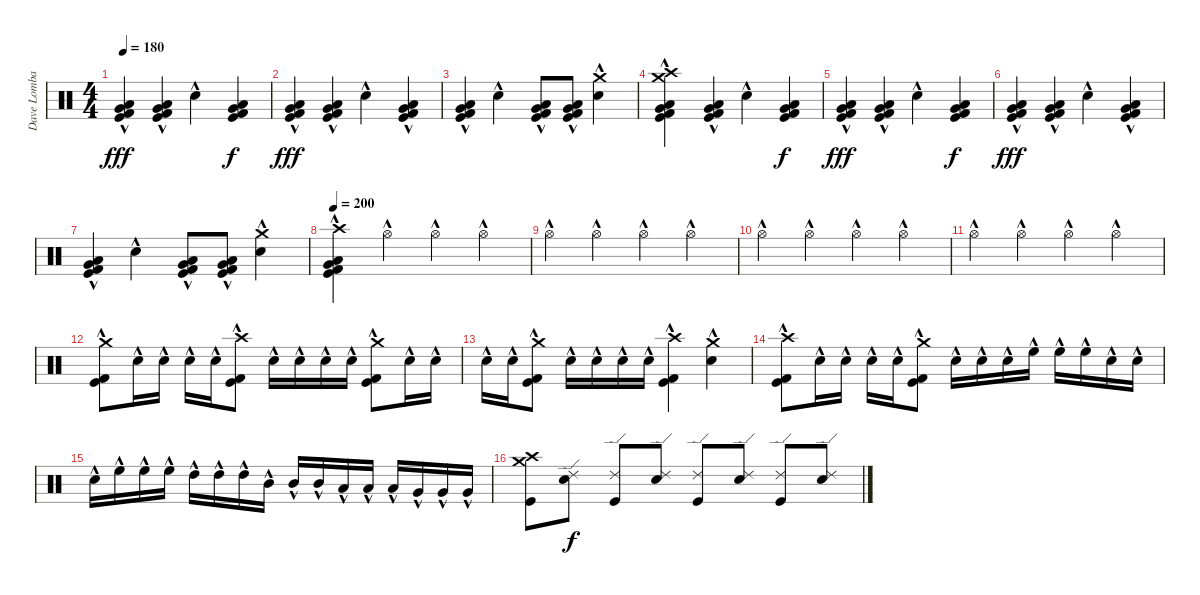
\track ("Dave Lombardo:" "Dave Lomba") {instrument percussion}
\staff {score}
\articulation defaults
\ts (4 4)
\tempo 180
\clef neutral
\ks c
("Very Low Tom (hit)"{hac} "Low Floor Tom (hit)"{hac} "Kick (hit)"{hac} "Kick (hit) 2"{hac}).4{dy fff} ("Very Low Tom (hit)"{hac} "Low Floor Tom (hit)"{hac} "Kick (hit)"{hac} "Kick (hit) 2"{hac}).4 "Snare (hit) 2"{hac}.4 ("Very Low Tom (hit)" "Low Floor Tom (hit)" "Kick (hit)" "Kick (hit) 2").4{dy f} |
("Very Low Tom (hit)"{hac} "Low Floor Tom (hit)"{hac} "Kick (hit)"{hac} "Kick (hit) 2"{hac}).4{dy fff} ("Very Low Tom (hit)"{hac} "Low Floor Tom (hit)"{hac} "Kick (hit)"{hac} "Kick (hit) 2"{hac}).4 "Snare (hit) 2"{hac}.4 ("Very Low Tom (hit)" "Low Floor Tom (hit)" "Kick (hit)" "Kick (hit) 2"{hac}).4 |
("Very Low Tom (hit)"{hac} "Low Floor Tom (hit)"{hac} "Kick (hit)"{hac} "Kick (hit) 2"{hac}).4 "Snare (hit) 2"{hac}.4 ("Very Low Tom (hit)"{hac} "Low Floor Tom (hit)"{hac} "Kick (hit)"{hac} "Kick (hit) 2"{hac}).8 ("Very Low Tom (hit)"{hac} "Low Floor Tom (hit)"{hac} "Kick (hit)"{hac} "Kick (hit) 2"{hac}).8 ("Crash medium (hit)" "Snare (hit) 2"{hac}).4 |
("Crash high (hit)"{hac} "Crash medium (hit)"{hac} "Very Low Tom (hit)" "Low Floor Tom (hit)" "Kick (hit) 2"{hac} "Kick (hit)"{hac}).4 ("Very Low Tom (hit)" "Low Floor Tom (hit)" "Kick (hit) 2"{hac} "Kick (hit)"{hac}).4 "Snare (hit) 2"{hac}.4 ("Very Low Tom (hit)" "Low Floor Tom (hit)" "Kick (hit)" "Kick (hit) 2").4{dy f} |
("Very Low Tom (hit)"{hac} "Low Floor Tom (hit)"{hac} "Kick (hit)"{hac} "Kick (hit) 2"{hac}).4{dy fff} ("Very Low Tom (hit)"{hac} "Low Floor Tom (hit)"{hac} "Kick (hit)"{hac} "Kick (hit) 2"{hac}).4 "Snare (hit) 2"{hac}.4 ("Very Low Tom (hit)" "Low Floor Tom (hit)" "Kick (hit)" "Kick (hit) 2").4{dy f} |
("Very Low Tom (hit)"{hac} "Low Floor Tom (hit)"{hac} "Kick (hit)"{hac} "Kick (hit) 2"{hac}).4{dy fff} ("Very Low Tom (hit)"{hac} "Low Floor Tom (hit)"{hac} "Kick (hit)"{hac} "Kick (hit) 2"{hac}).4 "Snare (hit) 2"{hac}.4 ("Very Low Tom (hit)" "Low Floor Tom (hit)" "Kick (hit)" "Kick (hit) 2"{hac}).4 |
("Very Low Tom (hit)"{hac} "Low Floor Tom (hit)"{hac} "Kick (hit)"{hac} "Kick (hit) 2"{hac}).4 "Snare (hit) 2"{hac}.4 ("Very Low Tom (hit)"{hac} "Low Floor Tom (hit)"{hac} "Kick (hit)"{hac} "Kick (hit) 2"{hac}).8 ("Very Low Tom (hit)"{hac} "Low Floor Tom (hit)"{hac} "Kick (hit)"{hac} "Kick (hit) 2"{hac}).8 ("Crash medium (hit)" "Snare (hit) 2"{hac}).4 |
\tempo 200
("Crash high (hit)" "Very Low Tom (hit)" "Low Floor Tom (hit)" "Kick (hit)" "Kick (hit) 2"{hac}).4 "Hi-Hat (open)"{hac}.4 "Hi-Hat (open)"{hac}.4 "Hi-Hat (open)"{hac}.4 |
"Hi-Hat (open)"{hac}.4 "Hi-Hat (open)"{hac}.4 "Hi-Hat (open)"{hac}.4 "Hi-Hat (open)"{hac}.4 |
"Hi-Hat (open)"{hac}.4 "Hi-Hat (open)"{hac}.4 "Hi-Hat (open)"{hac}.4 "Hi-Hat (open)"{hac}.4 |
"Hi-Hat (open)"{hac}.4 "Hi-Hat (open)"{hac}.4 "Hi-Hat (open)"{hac}.4 "Hi-Hat (open)"{hac}.4 |
("Crash medium (hit)" "Kick (hit) 2"{hac} "Kick (hit)"{hac}).8 "Snare (hit) 2"{hac}.16 "Snare (hit) 2"{hac}.16 "Snare (hit) 2"{hac}.16 "Snare (hit) 2"{hac}.16 ("Crash high (hit)" "Kick (hit) 2"{hac} "Kick (hit)"{hac}).8 "Snare (hit) 2"{hac}.16 "Snare (hit) 2"{hac}.16 "Snare (hit) 2"{hac}.16 "Snare (hit) 2"{hac}.16 ("Crash medium (hit)" "Kick (hit) 2"{hac} "Kick (hit)"{hac}).8 "Snare (hit) 2"{hac}.16 "Snare (hit) 2"{hac}.16 |
"Snare (hit) 2"{hac}.16 "Snare (hit) 2"{hac}.16 ("Crash medium (hit)" "Kick (hit)"{hac} "Kick (hit) 2"{hac}).8 "Snare (hit) 2"{hac}.16 "Snare (hit) 2"{hac}.16 "Snare (hit) 2"{hac}.16 "Snare (hit) 2"{hac}.16 ("Crash high (hit)" "Kick (hit) 2"{hac} "Kick (hit)"{hac}).4 ("Crash medium (hit)"{hac} "Snare (hit) 2"{hac}).4 |
("Crash high (hit)"{hac} "Kick (hit) 2"{hac} "Kick (hit)"{hac}).8 "Snare (hit) 2"{hac}.16 "Snare (hit) 2"{hac}.16 "Snare (hit) 2"{hac}.16 "Snare (hit) 2"{hac}.16 ("Crash medium (hit)"{hac} "Kick (hit)"{hac} "Kick (hit) 2"{hac}).8 "Snare (hit) 2"{hac}.16 "Snare (hit) 2"{hac}.16 "Snare (hit) 2"{hac}.16 "High Floor Tom (hit)"{hac}.16 "High Floor Tom (hit)"{hac}.16 "High Floor Tom (hit)"{hac}.16 "Snare (hit) 2"{hac}.16 "Snare (hit) 2"{hac}.16 |
"Snare (hit) 2"{hac}.16 "High Floor Tom (hit)"{hac}.16 "High Floor Tom (hit)"{hac}.16 "High Floor Tom (hit)"{hac}.16 "High Tom (hit)"{hac}.16 "High Tom (hit)"{hac}.16 "High Tom (hit)"{hac}.16 "Mid Tom (hit)"{hac}.16 "Mid Tom (hit)"{hac}.16 "Mid Tom (hit)"{hac}.16 "Low Tom (hit)"{hac}.16 "Low Tom (hit)"{hac}.16 "Low Tom (hit)"{hac}.16 "Very Low Tom (hit)"{hac}.16 "Very Low Tom (hit)"{hac}.16 "Very Low Tom (hit)"{hac}.16 |
("Crash medium (hit)" "Crash high (hit)" "Kick (hit)").8 ("Ride (edge) 2" "Snare (hit) 2").8{dy f} ("Ride (edge) 2" "Kick (hit)").8 ("Ride (edge) 2" "Snare (hit) 2").8 ("Ride (edge) 2" "Kick (hit)").8 ("Ride (edge) 2" "Snare (hit) 2").8 ("Ride (edge) 2" "Kick (hit)").8 ("Ride (edge) 2" "Snare (hit) 2").8
